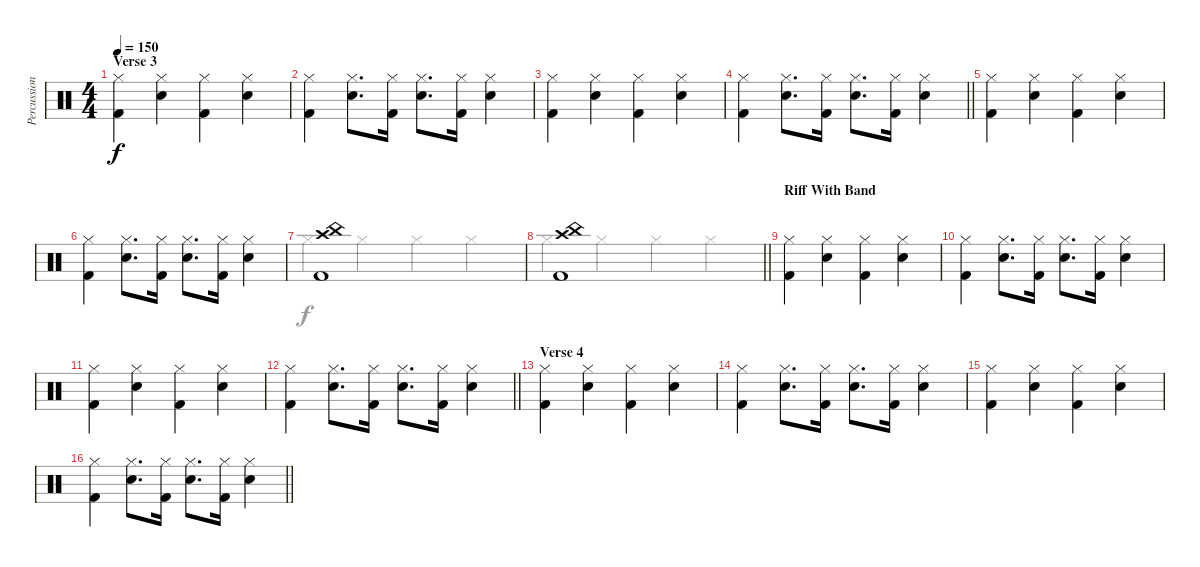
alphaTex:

\track ("Percussion" "Percussion") {instrument percussion}
\staff {score}
\articulation defaults
\voice
\ts (4 4)
\section ("" "Verse 3")
\tempo 150
\clef neutral
\ks c
("Kick (hit) 2" "Hi-Hat (closed)").4{dy f} ("Snare (hit) 2" "Hi-Hat (closed)").4 ("Kick (hit) 2" "Hi-Hat (closed)").4 ("Snare (hit) 2" "Hi-Hat (closed)").4 |
("Kick (hit) 2" "Hi-Hat (closed)").4 ("Snare (hit) 2" "Hi-Hat (closed)").8{d} ("Kick (hit) 2" "Hi-Hat (closed)").16 ("Snare (hit) 2" "Hi-Hat (closed)").8{d} ("Kick (hit) 2" "Hi-Hat (closed)").16 ("Snare (hit) 2" "Hi-Hat (closed)").4 |
("Kick (hit) 2" "Hi-Hat (closed)").4 ("Snare (hit) 2" "Hi-Hat (closed)").4 ("Kick (hit) 2" "Hi-Hat (closed)").4 ("Snare (hit) 2" "Hi-Hat (closed)").4 |
\barLineRight lightlight
("Kick (hit) 2" "Hi-Hat (closed)").4 ("Snare (hit) 2" "Hi-Hat (closed)").8{d} ("Kick (hit) 2" "Hi-Hat (closed)").16 ("Snare (hit) 2" "Hi-Hat (closed)").8{d} ("Kick (hit) 2" "Hi-Hat (closed)").16 ("Snare (hit) 2" "Hi-Hat (closed)").4 |
("Kick (hit) 2" "Hi-Hat (closed)").4 ("Snare (hit) 2" "Hi-Hat (closed)").4 ("Kick (hit) 2" "Hi-Hat (closed)").4 ("Snare (hit) 2" "Hi-Hat (closed)").4 |
("Kick (hit) 2" "Hi-Hat (closed)").4 ("Snare (hit) 2" "Hi-Hat (closed)").8{d} ("Kick (hit) 2" "Hi-Hat (closed)").16 ("Snare (hit) 2" "Hi-Hat (closed)").8{d} ("Kick (hit) 2" "Hi-Hat (closed)").16 ("Snare (hit) 2" "Hi-Hat (closed)").4 |
("China (hit)" "Kick (hit) 2" "Crash high (hit)").1 |
\barLineRight lightlight
("China (hit)" "Kick (hit) 2" "Crash high (hit)").1 |
\section ("" "Riff With Band")
("Kick (hit) 2" "Hi-Hat (closed)").4 ("Snare (hit) 2" "Hi-Hat (closed)").4 ("Kick (hit) 2" "Hi-Hat (closed)").4 ("Snare (hit) 2" "Hi-Hat (closed)").4 |
("Kick (hit) 2" "Hi-Hat (closed)").4 ("Snare (hit) 2" "Hi-Hat (closed)").8{d} ("Kick (hit) 2" "Hi-Hat (closed)").16 ("Snare (hit) 2" "Hi-Hat (closed)").8{d} ("Kick (hit) 2" "Hi-Hat (closed)").16 ("Snare (hit) 2" "Hi-Hat (closed)").4 |
("Kick (hit) 2" "Hi-Hat (closed)").4 ("Snare (hit) 2" "Hi-Hat (closed)").4 ("Kick (hit) 2" "Hi-Hat (closed)").4 ("Snare (hit) 2" "Hi-Hat (closed)").4 |
\barLineRight lightlight
("Kick (hit) 2" "Hi-Hat (closed)").4 ("Snare (hit) 2" "Hi-Hat (closed)").8{d} ("Kick (hit) 2" "Hi-Hat (closed)").16 ("Snare (hit) 2" "Hi-Hat (closed)").8{d} ("Kick (hit) 2" "Hi-Hat (closed)").16 ("Snare (hit) 2" "Hi-Hat (closed)").4 |
\section ("" "Verse 4")
("Kick (hit) 2" "Hi-Hat (closed)").4 ("Snare (hit) 2" "Hi-Hat (closed)").4 ("Kick (hit) 2" "Hi-Hat (closed)").4 ("Snare (hit) 2" "Hi-Hat (closed)").4 |
("Kick (hit) 2" "Hi-Hat (closed)").4 ("Snare (hit) 2" "Hi-Hat (closed)").8{d} ("Kick (hit) 2" "Hi-Hat (closed)").16 ("Snare (hit) 2" "Hi-Hat (closed)").8{d} ("Kick (hit) 2" "Hi-Hat (closed)").16 ("Snare (hit) 2" "Hi-Hat (closed)").4 |
("Kick (hit) 2" "Hi-Hat (closed)").4 ("Snare (hit) 2" "Hi-Hat (closed)").4 ("Kick (hit) 2" "Hi-Hat (closed)").4 ("Snare (hit) 2" "Hi-Hat (closed)").4 |
\barLineRight lightlight
("Kick (hit) 2" "Hi-Hat (closed)").4 ("Snare (hit) 2" "Hi-Hat (closed)").8{d} ("Kick (hit) 2" "Hi-Hat (closed)").16 ("Snare (hit) 2" "Hi-Hat (closed)").8{d} ("Kick (hit) 2" "Hi-Hat (closed)").16 ("Snare (hit) 2" "Hi-Hat (closed)").4
\voice
\clef neutral
\ottava regular
\simile none
\ks c
|
|
|
\barLineRight lightlight
|
|
|
"Hi-Hat (closed)".4 "Hi-Hat (closed)".4 "Hi-Hat (closed)".4 "Hi-Hat (closed)".4 |
\barLineRight lightlight "Hi-Hat (closed)".4 "Hi-Hat (closed)".4 "Hi-Hat (closed)".4 "Hi-Hat (closed)".4
|
|
|
|
\barLineRight lightlight
|
|
|
|
\barLineRight lightlight
